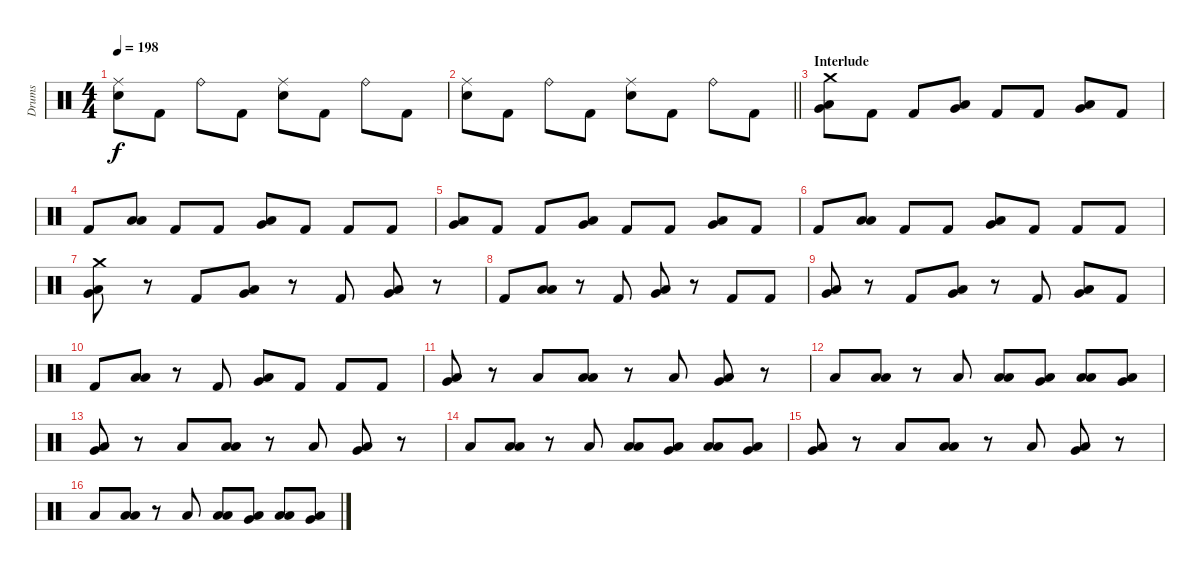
\track ("Drums" "Drums") {instrument percussion}
\staff {score}
\articulation defaults
\ts (4 4)
\tempo 198
\clef neutral
\ks c
("Ride (middle)" "Electric Snare (hit)").8{dy f} "Kick (hit) 2".8 "Ride (bell)".8 "Kick (hit) 2".8 ("Ride (middle)" "Electric Snare (hit)").8 "Kick (hit) 2".8 "Ride (bell)".8 "Kick (hit) 2".8 |
\barLineRight lightlight
("Ride (middle)" "Electric Snare (hit)").8 "Kick (hit) 2".8 "Ride (bell)".8 "Kick (hit) 2".8 ("Ride (middle)" "Electric Snare (hit)").8 "Kick (hit) 2".8 "Ride (bell)".8 "Kick (hit) 2".8 |
\section ("" "Interlude")
("Crash medium (hit)" "Low Tom (hit)" "Very Low Tom (hit)").8 "Kick (hit) 2".8 "Kick (hit) 2".8 ("Low Floor Tom (hit)" "Very Low Tom (hit)").8 "Kick (hit) 2".8 "Kick (hit) 2".8 ("Very Low Tom (hit)" "Low Floor Tom (hit)").8 "Kick (hit) 2".8 |
"Kick (hit) 2".8 ("Low Floor Tom (hit)" "Low Floor Tom (hit)").8 "Kick (hit) 2".8 "Kick (hit) 2".8 ("Very Low Tom (hit)" "Low Tom (hit)").8 "Kick (hit) 2".8 "Kick (hit) 2".8 "Kick (hit) 2".8 |
("Low Tom (hit)" "Very Low Tom (hit)").8 "Kick (hit) 2".8 "Kick (hit) 2".8 ("Low Floor Tom (hit)" "Very Low Tom (hit)").8 "Kick (hit) 2".8 "Kick (hit) 2".8 ("Very Low Tom (hit)" "Low Floor Tom (hit)").8 "Kick (hit) 2".8 |
"Kick (hit) 2".8 ("Low Floor Tom (hit)" "Low Floor Tom (hit)").8 "Kick (hit) 2".8 "Kick (hit) 2".8 ("Very Low Tom (hit)" "Low Tom (hit)").8 "Kick (hit) 2".8 "Kick (hit) 2".8 "Kick (hit) 2".8 |
("Crash medium (hit)" "Low Tom (hit)" "Very Low Tom (hit)").8 r.8 "Kick (hit) 2".8 ("Low Floor Tom (hit)" "Very Low Tom (hit)").8 r.8 "Kick (hit) 2".8 ("Very Low Tom (hit)" "Low Floor Tom (hit)").8 r.8 |
"Kick (hit) 2".8 ("Low Floor Tom (hit)" "Low Floor Tom (hit)").8 r.8 "Kick (hit) 2".8 ("Very Low Tom (hit)" "Low Tom (hit)").8 r.8 "Kick (hit) 2".8 "Kick (hit) 2".8 |
("Low Tom (hit)" "Very Low Tom (hit)").8 r.8 "Kick (hit) 2".8 ("Low Floor Tom (hit)" "Very Low Tom (hit)").8 r.8 "Kick (hit) 2".8 ("Very Low Tom (hit)" "Low Floor Tom (hit)").8 "Kick (hit) 2".8 |
"Kick (hit) 2".8 ("Low Floor Tom (hit)" "Low Floor Tom (hit)").8 r.8 "Kick (hit) 2".8 ("Very Low Tom (hit)" "Low Tom (hit)").8 "Kick (hit) 2".8 "Kick (hit) 2".8 "Kick (hit) 2".8 |
("Low Floor Tom (hit)" "Very Low Tom (hit)").8 r.8 "Low Floor Tom (hit)".8 ("Low Tom (hit)" "Low Floor Tom (hit)").8 r.8 "Low Floor Tom (hit)".8 ("Very Low Tom (hit)" "Low Floor Tom (hit)").8 r.8 |
"Low Floor Tom (hit)".8 ("Low Tom (hit)" "Low Floor Tom (hit)").8 r.8 "Low Floor Tom (hit)".8 ("Low Tom (hit)" "Low Floor Tom (hit)").8 ("Very Low Tom (hit)" "Low Floor Tom (hit)").8 ("Low Tom (hit)" "Low Floor Tom (hit)").8 ("Very Low Tom (hit)" "Low Floor Tom (hit)").8 |
("Low Floor Tom (hit)" "Very Low Tom (hit)").8 r.8 "Low Floor Tom (hit)".8 ("Low Tom (hit)" "Low Floor Tom (hit)").8 r.8 "Low Floor Tom (hit)".8 ("Very Low Tom (hit)" "Low Floor Tom (hit)").8 r.8 |
"Low Floor Tom (hit)".8 ("Low Tom (hit)" "Low Floor Tom (hit)").8 r.8 "Low Floor Tom (hit)".8 ("Low Tom (hit)" "Low Floor Tom (hit)").8 ("Very Low Tom (hit)" "Low Floor Tom (hit)").8 ("Low Tom (hit)" "Low Floor Tom (hit)").8 ("Very Low Tom (hit)" "Low Floor Tom (hit)").8 |
("Low Floor Tom (hit)" "Very Low Tom (hit)").8 r.8 "Low Floor Tom (hit)".8 ("Low Tom (hit)" "Low Floor Tom (hit)").8 r.8 "Low Floor Tom (hit)".8 ("Very Low Tom (hit)" "Low Floor Tom (hit)").8 r.8 |
"Low Floor Tom (hit)".8 ("Low Tom (hit)" "Low Floor Tom (hit)").8 r.8 "Low Floor Tom (hit)".8 ("Low Tom (hit)" "Low Floor Tom (hit)").8 ("Very Low Tom (hit)" "Low Floor Tom (hit)").8 ("Low Tom (hit)" "Low Floor Tom (hit)").8 ("Very Low Tom (hit)" "Low Floor Tom (hit)").8
